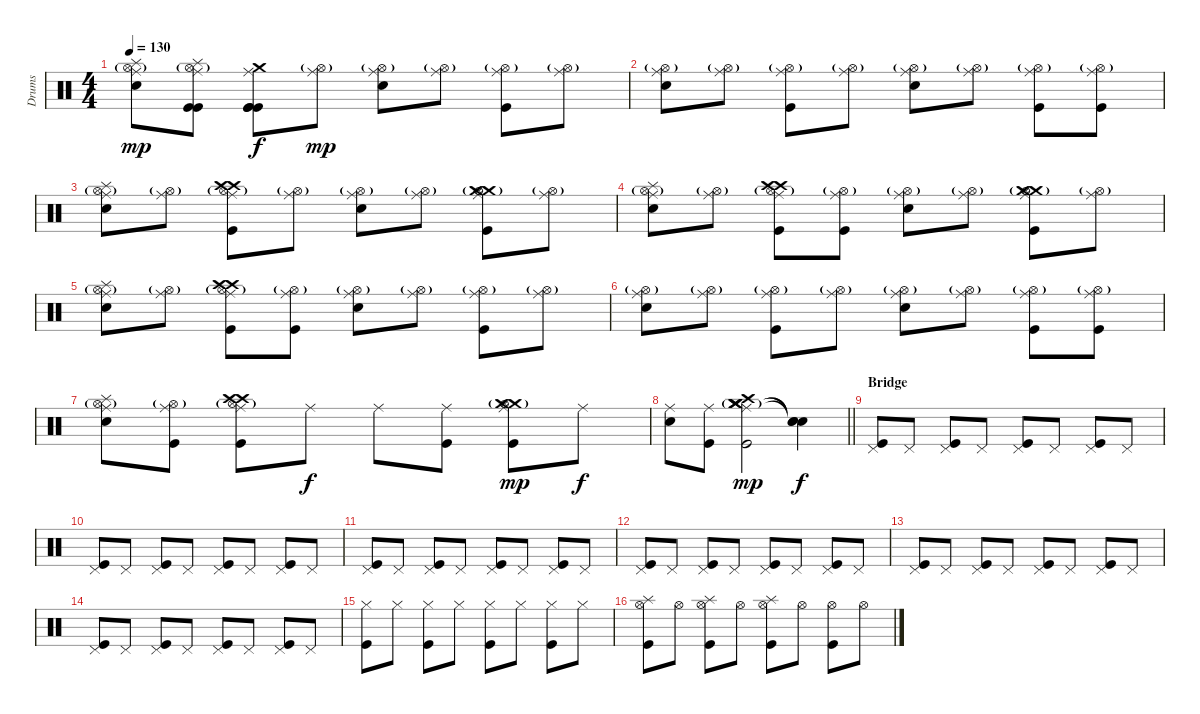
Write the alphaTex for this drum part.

\track ("Drums" "Drums") {instrument percussion}
\staff {score}
\articulation defaults
\ts (4 4)
\tempo 130
\clef neutral
\ks c
("Splash (hit)" "Ride (middle)" "Hi-Hat (open)"{g} "Snare (hit) 2").8{dy mp} ("Splash (hit)" "Ride (middle)" "Hi-Hat (open)"{g} "Kick (hit)" "Kick (hit)").8 ("Crash medium (hit)" "Ride (middle)" "Kick (hit)" "Kick (hit)" "Kick (hit)").8{dy f} ("Ride (middle)" "Hi-Hat (open)"{g}).8{dy mp} ("Ride (middle)" "Hi-Hat (open)"{g} "Snare (hit) 2").8 ("Ride (middle)" "Hi-Hat (open)"{g}).8 ("Ride (middle)" "Hi-Hat (open)"{g} "Kick (hit)").8 ("Ride (middle)" "Hi-Hat (open)"{g}).8 |
("Ride (middle)" "Hi-Hat (open)"{g} "Snare (hit) 2").8 ("Ride (middle)" "Hi-Hat (open)"{g}).8 ("Ride (middle)" "Hi-Hat (open)"{g} "Kick (hit)").8 ("Ride (middle)" "Hi-Hat (open)"{g}).8 ("Ride (middle)" "Hi-Hat (open)"{g} "Snare (hit) 2").8 ("Ride (middle)" "Hi-Hat (open)"{g}).8 ("Ride (middle)" "Hi-Hat (open)"{g} "Kick (hit)").8 ("Ride (middle)" "Hi-Hat (open)"{g} "Kick (hit)").8 |
("Ride (middle)" "Splash (hit)" "Hi-Hat (open)"{g} "Snare (hit) 2").8 ("Ride (middle)" "Hi-Hat (open)"{g}).8 ("Ride (middle)" "Crash high (hit)" "Hi-Hat (open)"{g} "Crash high (hit)" "Kick (hit)").8 ("Ride (middle)" "Hi-Hat (open)"{g}).8 ("Ride (middle)" "Hi-Hat (open)"{g} "Snare (hit) 2").8 ("Ride (middle)" "Hi-Hat (open)"{g}).8 ("Ride (middle)" "Crash medium (hit)" "Hi-Hat (open)"{g} "Crash medium (hit)" "Kick (hit)").8 ("Ride (middle)" "Hi-Hat (open)"{g}).8 |
("Ride (middle)" "Splash (hit)" "Hi-Hat (open)"{g} "Snare (hit) 2").8 ("Ride (middle)" "Hi-Hat (open)"{g}).8 ("Ride (middle)" "Crash high (hit)" "Hi-Hat (open)"{g} "Crash high (hit)" "Kick (hit)").8 ("Ride (middle)" "Hi-Hat (open)"{g} "Kick (hit)").8 ("Ride (middle)" "Hi-Hat (open)"{g} "Snare (hit) 2").8 ("Ride (middle)" "Hi-Hat (open)"{g}).8 ("Ride (middle)" "Crash medium (hit)" "Hi-Hat (open)"{g} "Crash medium (hit)" "Kick (hit)").8 ("Ride (middle)" "Hi-Hat (open)"{g}).8 |
("Ride (middle)" "Splash (hit)" "Hi-Hat (open)"{g} "Snare (hit) 2").8 ("Ride (middle)" "Hi-Hat (open)"{g}).8 ("Ride (middle)" "Crash high (hit)" "Hi-Hat (open)"{g} "Crash high (hit)" "Kick (hit)").8 ("Ride (middle)" "Hi-Hat (open)"{g} "Kick (hit)").8 ("Ride (middle)" "Hi-Hat (open)"{g} "Snare (hit) 2").8 ("Ride (middle)" "Hi-Hat (open)"{g}).8 ("Ride (middle)" "Hi-Hat (open)"{g} "Kick (hit)").8 ("Ride (middle)" "Hi-Hat (open)"{g}).8 |
("Ride (middle)" "Hi-Hat (open)"{g} "Snare (hit) 2").8 ("Ride (middle)" "Hi-Hat (open)"{g}).8 ("Ride (middle)" "Hi-Hat (open)"{g} "Kick (hit)").8 ("Ride (middle)" "Hi-Hat (open)"{g}).8 ("Ride (middle)" "Hi-Hat (open)"{g} "Snare (hit) 2").8 ("Ride (middle)" "Hi-Hat (open)"{g}).8 ("Ride (middle)" "Hi-Hat (open)"{g} "Kick (hit)").8 ("Ride (middle)" "Hi-Hat (open)"{g} "Kick (hit)").8 |
("Ride (middle)" "Splash (hit)" "Hi-Hat (open)"{g} "Snare (hit) 2").8 ("Ride (middle)" "Hi-Hat (open)"{g} "Kick (hit)").8 ("Ride (middle)" "Crash high (hit)" "Hi-Hat (open)"{g} "Crash high (hit)" "Kick (hit)").8 "Ride (middle)".8{dy f} "Ride (middle)".8 ("Ride (middle)" "Kick (hit)").8 ("Ride (middle)" "Crash medium (hit)" "Hi-Hat (open)"{g} "Crash medium (hit)" "Kick (hit)").8{dy mp} "Ride (middle)".8{dy f} |
\barLineRight lightlight
("Ride (middle)" "Snare (hit) 2").8 ("Ride (middle)" "Kick (hit)").8 ("Ride (middle)" "Crash medium (hit)" "Crash medium (hit)"{g} "Crash medium (hit)" "Crash high (hit)" "Kick (hit)").2{dy mp} ("Snare (hit)"{t} "Snare (hit)"{t} "Snare (hit)"{t}).4{dy f} |
\section ("" "Bridge")
("Pedal Hi-Hat (hit)" "Kick (hit)").8 "Pedal Hi-Hat (hit)".8 ("Pedal Hi-Hat (hit)" "Kick (hit)").8 "Pedal Hi-Hat (hit)".8 ("Pedal Hi-Hat (hit)" "Kick (hit)").8 "Pedal Hi-Hat (hit)".8 ("Pedal Hi-Hat (hit)" "Kick (hit)").8 "Pedal Hi-Hat (hit)".8 |
("Pedal Hi-Hat (hit)" "Kick (hit)").8 "Pedal Hi-Hat (hit)".8 ("Pedal Hi-Hat (hit)" "Kick (hit)").8 "Pedal Hi-Hat (hit)".8 ("Pedal Hi-Hat (hit)" "Kick (hit)").8 "Pedal Hi-Hat (hit)".8 ("Pedal Hi-Hat (hit)" "Kick (hit)").8 "Pedal Hi-Hat (hit)".8 |
("Pedal Hi-Hat (hit)" "Kick (hit)").8 "Pedal Hi-Hat (hit)".8 ("Pedal Hi-Hat (hit)" "Kick (hit)").8 "Pedal Hi-Hat (hit)".8 ("Pedal Hi-Hat (hit)" "Kick (hit)").8 "Pedal Hi-Hat (hit)".8 ("Pedal Hi-Hat (hit)" "Kick (hit)").8 "Pedal Hi-Hat (hit)".8 |
("Pedal Hi-Hat (hit)" "Kick (hit)").8 "Pedal Hi-Hat (hit)".8 ("Pedal Hi-Hat (hit)" "Kick (hit)").8 "Pedal Hi-Hat (hit)".8 ("Pedal Hi-Hat (hit)" "Kick (hit)").8 "Pedal Hi-Hat (hit)".8 ("Pedal Hi-Hat (hit)" "Kick (hit)").8 "Pedal Hi-Hat (hit)".8 |
("Pedal Hi-Hat (hit)" "Kick (hit)").8 "Pedal Hi-Hat (hit)".8 ("Pedal Hi-Hat (hit)" "Kick (hit)").8 "Pedal Hi-Hat (hit)".8 ("Pedal Hi-Hat (hit)" "Kick (hit)").8 "Pedal Hi-Hat (hit)".8 ("Pedal Hi-Hat (hit)" "Kick (hit)").8 "Pedal Hi-Hat (hit)".8 |
("Pedal Hi-Hat (hit)" "Kick (hit)").8 "Pedal Hi-Hat (hit)".8 ("Pedal Hi-Hat (hit)" "Kick (hit)").8 "Pedal Hi-Hat (hit)".8 ("Pedal Hi-Hat (hit)" "Kick (hit)").8 "Pedal Hi-Hat (hit)".8 ("Pedal Hi-Hat (hit)" "Kick (hit)").8 "Pedal Hi-Hat (hit)".8 |
("Hi-Hat (closed)" "Kick (hit)").8 "Hi-Hat (closed)".8 ("Hi-Hat (closed)" "Kick (hit)").8 "Hi-Hat (closed)".8 ("Hi-Hat (closed)" "Kick (hit)").8 "Hi-Hat (closed)".8 ("Hi-Hat (closed)" "Kick (hit)").8 "Hi-Hat (closed)".8 |
("Splash (hit)" "Hi-Hat (open)" "Kick (hit)").8 "Hi-Hat (open)".8 ("Splash (hit)" "Hi-Hat (open)" "Kick (hit)").8 "Hi-Hat (open)".8 ("Splash (hit)" "Hi-Hat (open)" "Kick (hit)").8 "Hi-Hat (open)".8 ("Hi-Hat (open)" "Kick (hit)").8 "Hi-Hat (open)".8
